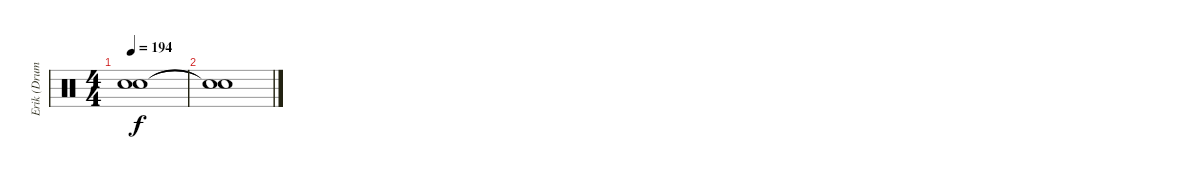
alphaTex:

\track ("Erik (Drums)" "Erik (Drum") {instrument percussion}
\staff {score}
\articulation defaults
\ts (4 4)
\tempo 194
\clef neutral
\ks c
("Snare (hit)"{t} "Snare (hit)"{t}).1{dy f volume 0} |
("Snare (hit)"{t} "Snare (hit)"{t}).1
